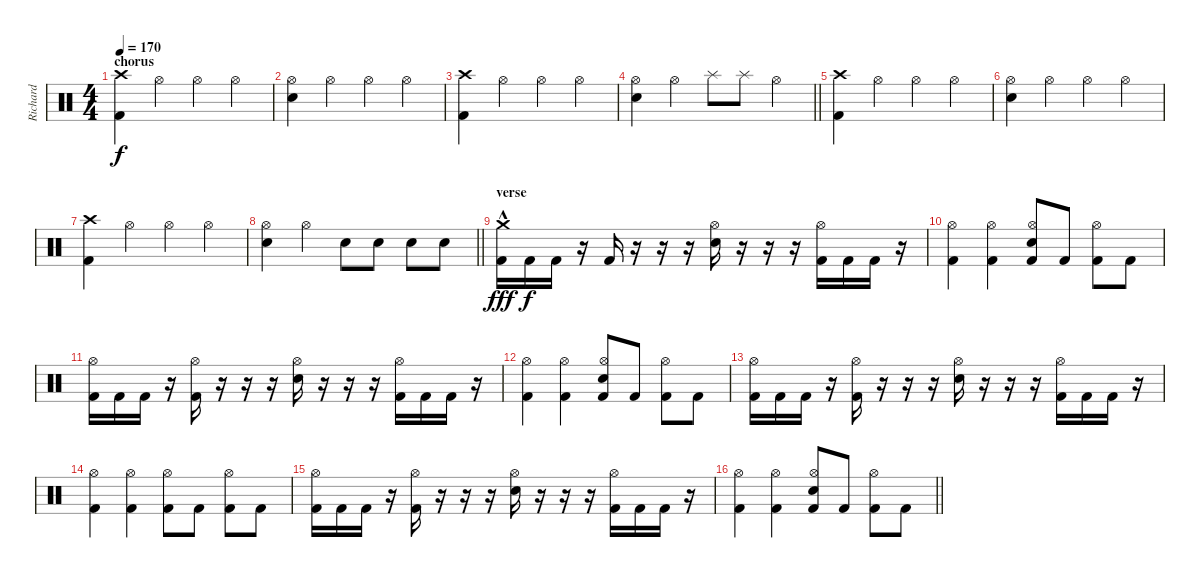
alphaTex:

\track ("Richard" "Richard") {instrument percussion}
\staff {score}
\articulation defaults
\ts (4 4)
\section ("" "chorus")
\tempo 170
\clef neutral
\ks c
("Crash high (hit)" "Kick (hit) 2").4{dy f} "Hi-Hat (open)".4 "Hi-Hat (open)".4 "Hi-Hat (open)".4 |
("Hi-Hat (open)" "Electric Snare (hit)").4 "Hi-Hat (open)".4 "Hi-Hat (open)".4 "Hi-Hat (open)".4 |
("Crash high (hit)" "Kick (hit) 2").4 "Hi-Hat (open)".4 "Hi-Hat (open)".4 "Hi-Hat (open)".4 |
\barLineRight lightlight
("Hi-Hat (open)" "Electric Snare (hit)").4 "Hi-Hat (open)".4 "Splash (hit)".8 "Splash (hit)".8 "Hi-Hat (open)".4 |
("Crash high (hit)" "Kick (hit) 2").4 "Hi-Hat (open)".4 "Hi-Hat (open)".4 "Hi-Hat (open)".4 |
("Hi-Hat (open)" "Electric Snare (hit)").4 "Hi-Hat (open)".4 "Hi-Hat (open)".4 "Hi-Hat (open)".4 |
("Crash high (hit)" "Kick (hit) 2").4 "Hi-Hat (open)".4 "Hi-Hat (open)".4 "Hi-Hat (open)".4 |
\barLineRight lightlight
("Hi-Hat (open)" "Electric Snare (hit)").4 "Hi-Hat (open)".4 "Electric Snare (hit)".8 "Electric Snare (hit)".8 "Electric Snare (hit)".8 "Electric Snare (hit)".8 |
\section ("" "verse")
("Crash medium (hit)"{hac} "Kick (hit) 2").16{dy fff} "Kick (hit) 2".16{dy f} "Kick (hit) 2".16 r.16 "Kick (hit) 2".16 r.16 r.16 r.16 ("Hi-Hat (open)" "Electric Snare (hit)").16 r.16 r.16 r.16 ("Hi-Hat (open)" "Kick (hit) 2").16 "Kick (hit) 2".16 "Kick (hit) 2".16 r.16 |
("Hi-Hat (open)" "Kick (hit) 2").4 ("Hi-Hat (open)" "Kick (hit) 2").4 ("Hi-Hat (open)" "Electric Snare (hit)" "Kick (hit) 2").8 "Kick (hit) 2".8 ("Hi-Hat (open)" "Kick (hit) 2").8 "Kick (hit) 2".8 |
("Hi-Hat (open)" "Kick (hit) 2").16 "Kick (hit) 2".16 "Kick (hit) 2".16 r.16 ("Hi-Hat (open)" "Kick (hit) 2").16 r.16 r.16 r.16 ("Hi-Hat (open)" "Electric Snare (hit)").16 r.16 r.16 r.16 ("Hi-Hat (open)" "Kick (hit) 2").16 "Kick (hit) 2".16 "Kick (hit) 2".16 r.16 |
("Hi-Hat (open)" "Kick (hit) 2").4 ("Hi-Hat (open)" "Kick (hit) 2").4 ("Hi-Hat (open)" "Electric Snare (hit)" "Kick (hit) 2").8 "Kick (hit) 2".8 ("Hi-Hat (open)" "Kick (hit) 2").8 "Kick (hit) 2".8 |
("Hi-Hat (open)" "Kick (hit) 2").16 "Kick (hit) 2".16 "Kick (hit) 2".16 r.16 ("Hi-Hat (open)" "Kick (hit) 2").16 r.16 r.16 r.16 ("Hi-Hat (open)" "Electric Snare (hit)").16 r.16 r.16 r.16 ("Hi-Hat (open)" "Kick (hit) 2").16 "Kick (hit) 2".16 "Kick (hit) 2".16 r.16 |
("Hi-Hat (open)" "Kick (hit) 2").4 ("Hi-Hat (open)" "Kick (hit) 2").4 ("Hi-Hat (open)" "Kick (hit) 2").8 "Kick (hit) 2".8 ("Hi-Hat (open)" "Kick (hit) 2").8 "Kick (hit) 2".8 |
("Hi-Hat (open)" "Kick (hit) 2").16 "Kick (hit) 2".16 "Kick (hit) 2".16 r.16 ("Hi-Hat (open)" "Kick (hit) 2").16 r.16 r.16 r.16 ("Hi-Hat (open)" "Electric Snare (hit)").16 r.16 r.16 r.16 ("Hi-Hat (open)" "Kick (hit) 2").16 "Kick (hit) 2".16 "Kick (hit) 2".16 r.16 |
\barLineRight lightlight
("Hi-Hat (open)" "Kick (hit) 2").4 ("Hi-Hat (open)" "Kick (hit) 2").4 ("Hi-Hat (open)" "Electric Snare (hit)" "Kick (hit) 2").8 "Kick (hit) 2".8 ("Hi-Hat (open)" "Kick (hit) 2").8 "Kick (hit) 2".8
